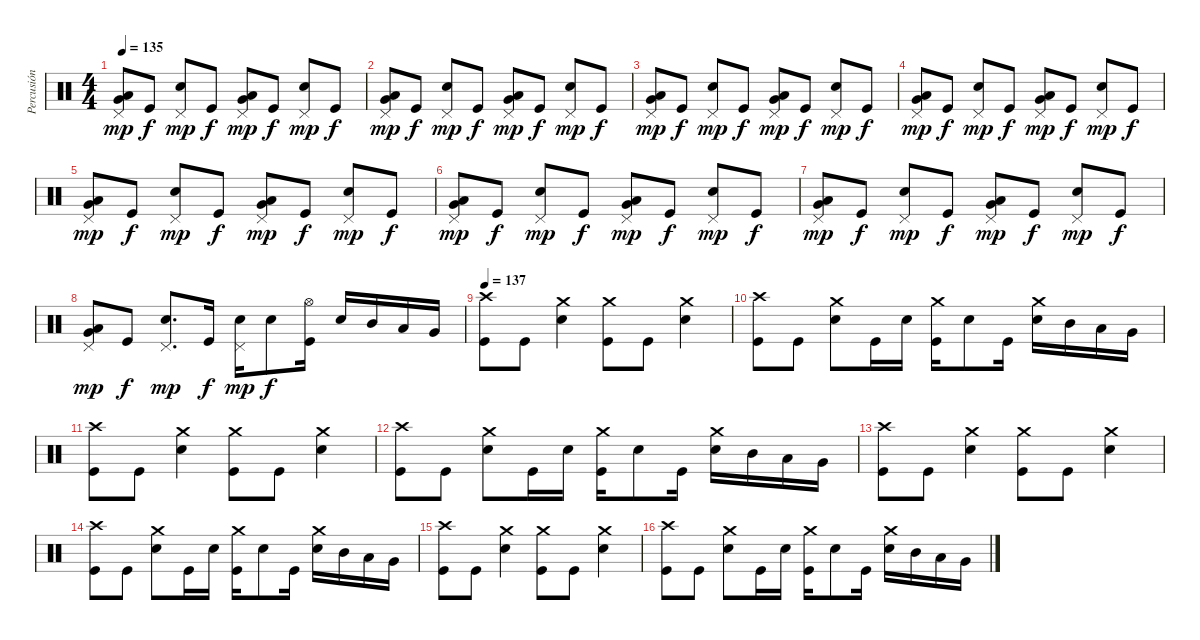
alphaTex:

\track ("Percusión" "Percusión") {instrument percussion}
\staff {score}
\articulation defaults
\ts (4 4)
\tempo 135
\clef neutral
\ks c
("Pedal Hi-Hat (hit)" "Low Tom (hit)" "Very Low Tom (hit)").8{dy mp} "Kick (hit)".8{dy f} ("Pedal Hi-Hat (hit)" "Snare (hit) 2").8{dy mp} "Kick (hit)".8{dy f} ("Pedal Hi-Hat (hit)" "Low Tom (hit)" "Very Low Tom (hit)").8{dy mp} "Kick (hit)".8{dy f} ("Pedal Hi-Hat (hit)" "Snare (hit) 2").8{dy mp} "Kick (hit)".8{dy f} |
("Pedal Hi-Hat (hit)" "Low Tom (hit)" "Very Low Tom (hit)").8{dy mp} "Kick (hit)".8{dy f} ("Pedal Hi-Hat (hit)" "Snare (hit) 2").8{dy mp} "Kick (hit)".8{dy f} ("Pedal Hi-Hat (hit)" "Low Tom (hit)" "Very Low Tom (hit)").8{dy mp} "Kick (hit)".8{dy f} ("Pedal Hi-Hat (hit)" "Snare (hit) 2").8{dy mp} "Kick (hit)".8{dy f} |
("Pedal Hi-Hat (hit)" "Low Tom (hit)" "Very Low Tom (hit)").8{dy mp} "Kick (hit)".8{dy f} ("Pedal Hi-Hat (hit)" "Snare (hit) 2").8{dy mp} "Kick (hit)".8{dy f} ("Pedal Hi-Hat (hit)" "Low Tom (hit)" "Very Low Tom (hit)").8{dy mp} "Kick (hit)".8{dy f} ("Pedal Hi-Hat (hit)" "Snare (hit) 2").8{dy mp} "Kick (hit)".8{dy f} |
("Pedal Hi-Hat (hit)" "Low Tom (hit)" "Very Low Tom (hit)").8{dy mp} "Kick (hit)".8{dy f} ("Pedal Hi-Hat (hit)" "Snare (hit) 2").8{dy mp} "Kick (hit)".8{dy f} ("Pedal Hi-Hat (hit)" "Low Tom (hit)" "Very Low Tom (hit)").8{dy mp} "Kick (hit)".8{dy f} ("Pedal Hi-Hat (hit)" "Snare (hit) 2").8{dy mp} "Kick (hit)".8{dy f} |
("Pedal Hi-Hat (hit)" "Low Tom (hit)" "Very Low Tom (hit)").8{dy mp} "Kick (hit)".8{dy f} ("Pedal Hi-Hat (hit)" "Snare (hit) 2").8{dy mp} "Kick (hit)".8{dy f} ("Pedal Hi-Hat (hit)" "Low Tom (hit)" "Very Low Tom (hit)").8{dy mp} "Kick (hit)".8{dy f} ("Pedal Hi-Hat (hit)" "Snare (hit) 2").8{dy mp} "Kick (hit)".8{dy f} |
("Pedal Hi-Hat (hit)" "Low Tom (hit)" "Very Low Tom (hit)").8{dy mp} "Kick (hit)".8{dy f} ("Pedal Hi-Hat (hit)" "Snare (hit) 2").8{dy mp} "Kick (hit)".8{dy f} ("Pedal Hi-Hat (hit)" "Low Tom (hit)" "Very Low Tom (hit)").8{dy mp} "Kick (hit)".8{dy f} ("Pedal Hi-Hat (hit)" "Snare (hit) 2").8{dy mp} "Kick (hit)".8{dy f} |
("Pedal Hi-Hat (hit)" "Low Tom (hit)" "Very Low Tom (hit)").8{dy mp} "Kick (hit)".8{dy f} ("Pedal Hi-Hat (hit)" "Snare (hit) 2").8{dy mp} "Kick (hit)".8{dy f} ("Pedal Hi-Hat (hit)" "Low Tom (hit)" "Very Low Tom (hit)").8{dy mp} "Kick (hit)".8{dy f} ("Pedal Hi-Hat (hit)" "Snare (hit) 2").8{dy mp} "Kick (hit)".8{dy f} |
("Pedal Hi-Hat (hit)" "Low Tom (hit)" "Very Low Tom (hit)").8{dy mp} "Kick (hit)".8{dy f} ("Pedal Hi-Hat (hit)" "Snare (hit) 2").8{d dy mp} "Kick (hit)".16{dy f} ("Pedal Hi-Hat (hit)" "Snare (hit) 2").16{dy mp} "Snare (hit) 2".8{dy f} ("Hi-Hat (open)" "Kick (hit)").16 "Snare (hit) 2".16 "Mid Tom (hit)".16 "Low Tom (hit)".16 "Very Low Tom (hit)".16 |
\tempo 137
("Crash high (hit)" "Kick (hit)").8 "Kick (hit)".8 ("Crash medium (hit)" "Snare (hit) 2").4 ("Crash medium (hit)" "Kick (hit)").8 "Kick (hit)".8 ("Crash medium (hit)" "Snare (hit) 2").4 |
("Crash high (hit)" "Kick (hit)").8 "Kick (hit)".8 ("Crash medium (hit)" "Snare (hit) 2").8 "Kick (hit)".16 "Snare (hit) 2".16 ("Crash medium (hit)" "Kick (hit)").16 "Snare (hit) 2".8 "Kick (hit)".16 ("Crash medium (hit)" "Snare (hit) 2").16 "Mid Tom (hit)".16 "Low Tom (hit)".16 "Very Low Tom (hit)".16 |
("Crash high (hit)" "Kick (hit)").8 "Kick (hit)".8 ("Crash medium (hit)" "Snare (hit) 2").4 ("Crash medium (hit)" "Kick (hit)").8 "Kick (hit)".8 ("Crash medium (hit)" "Snare (hit) 2").4 |
("Crash high (hit)" "Kick (hit)").8 "Kick (hit)".8 ("Crash medium (hit)" "Snare (hit) 2").8 "Kick (hit)".16 "Snare (hit) 2".16 ("Crash medium (hit)" "Kick (hit)").16 "Snare (hit) 2".8 "Kick (hit)".16 ("Crash medium (hit)" "Snare (hit) 2").16 "Mid Tom (hit)".16 "Low Tom (hit)".16 "Very Low Tom (hit)".16 |
("Crash high (hit)" "Kick (hit)").8 "Kick (hit)".8 ("Crash medium (hit)" "Snare (hit) 2").4 ("Crash medium (hit)" "Kick (hit)").8 "Kick (hit)".8 ("Crash medium (hit)" "Snare (hit) 2").4 |
("Crash high (hit)" "Kick (hit)").8 "Kick (hit)".8 ("Crash medium (hit)" "Snare (hit) 2").8 "Kick (hit)".16 "Snare (hit) 2".16 ("Crash medium (hit)" "Kick (hit)").16 "Snare (hit) 2".8 "Kick (hit)".16 ("Crash medium (hit)" "Snare (hit) 2").16 "Mid Tom (hit)".16 "Low Tom (hit)".16 "Very Low Tom (hit)".16 |
("Crash high (hit)" "Kick (hit)").8 "Kick (hit)".8 ("Crash medium (hit)" "Snare (hit) 2").4 ("Crash medium (hit)" "Kick (hit)").8 "Kick (hit)".8 ("Crash medium (hit)" "Snare (hit) 2").4 |
("Crash high (hit)" "Kick (hit)").8 "Kick (hit)".8 ("Crash medium (hit)" "Snare (hit) 2").8 "Kick (hit)".16 "Snare (hit) 2".16 ("Crash medium (hit)" "Kick (hit)").16 "Snare (hit) 2".8 "Kick (hit)".16 ("Crash medium (hit)" "Snare (hit) 2").16 "Mid Tom (hit)".16 "Low Tom (hit)".16 "Very Low Tom (hit)".16
